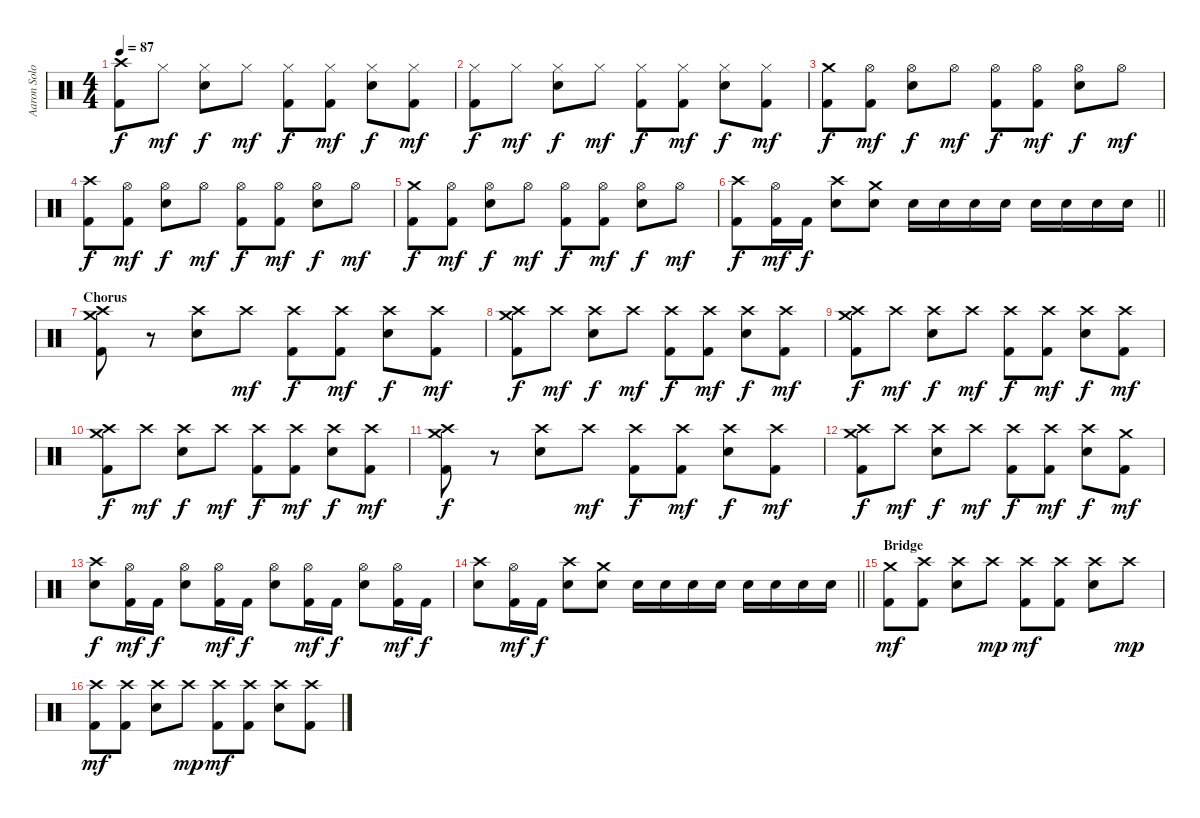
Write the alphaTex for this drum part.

\track ("Aaron Solowoniuk" "Aaron Solo") {instrument percussion}
\staff {score}
\articulation defaults
\ts (4 4)
\tempo 87
\clef neutral
\ks c
("Crash high (hit)" "Kick (hit) 2").8{dy f} "Hi-Hat (closed)".8{dy mf} ("Hi-Hat (closed)" "Snare (hit) 2").8{dy f} "Hi-Hat (closed)".8{dy mf} ("Hi-Hat (closed)" "Kick (hit) 2").8{dy f} ("Hi-Hat (closed)" "Kick (hit) 2").8{dy mf} ("Hi-Hat (closed)" "Snare (hit) 2").8{dy f} ("Hi-Hat (closed)" "Kick (hit) 2").8{dy mf} |
("Hi-Hat (closed)" "Kick (hit) 2").8{dy f} "Hi-Hat (closed)".8{dy mf} ("Hi-Hat (closed)" "Snare (hit) 2").8{dy f} "Hi-Hat (closed)".8{dy mf} ("Hi-Hat (closed)" "Kick (hit) 2").8{dy f} ("Hi-Hat (closed)" "Kick (hit) 2").8{dy mf} ("Hi-Hat (closed)" "Snare (hit) 2").8{dy f} ("Hi-Hat (closed)" "Kick (hit) 2").8{dy mf} |
("Crash medium (hit)" "Kick (hit) 2").8{dy f} ("Hi-Hat (open)" "Kick (hit) 2").8{dy mf} ("Hi-Hat (open)" "Snare (hit) 2").8{dy f} "Hi-Hat (open)".8{dy mf} ("Hi-Hat (open)" "Kick (hit) 2").8{dy f} ("Hi-Hat (open)" "Kick (hit) 2").8{dy mf} ("Hi-Hat (open)" "Snare (hit) 2").8{dy f} "Hi-Hat (open)".8{dy mf} |
("Crash high (hit)" "Kick (hit) 2").8{dy f} ("Hi-Hat (open)" "Kick (hit) 2").8{dy mf} ("Hi-Hat (open)" "Snare (hit) 2").8{dy f} "Hi-Hat (open)".8{dy mf} ("Hi-Hat (open)" "Kick (hit) 2").8{dy f} ("Hi-Hat (open)" "Kick (hit) 2").8{dy mf} ("Hi-Hat (open)" "Snare (hit) 2").8{dy f} "Hi-Hat (open)".8{dy mf} |
("Crash medium (hit)" "Kick (hit) 2").8{dy f} ("Hi-Hat (open)" "Kick (hit) 2").8{dy mf} ("Hi-Hat (open)" "Snare (hit) 2").8{dy f} "Hi-Hat (open)".8{dy mf} ("Hi-Hat (open)" "Kick (hit) 2").8{dy f} ("Hi-Hat (open)" "Kick (hit) 2").8{dy mf} ("Hi-Hat (open)" "Snare (hit) 2").8{dy f} "Hi-Hat (open)".8{dy mf} |
\barLineRight lightlight
("Crash high (hit)" "Kick (hit) 2").8{dy f} ("Hi-Hat (open)" "Kick (hit) 2").16{dy mf} "Kick (hit) 2".16{dy f} ("Crash high (hit)" "Snare (hit) 2").8 ("Crash medium (hit)" "Snare (hit) 2").8 "Snare (hit) 2".16 "Snare (hit) 2".16 "Snare (hit) 2".16 "Snare (hit) 2".16 "Snare (hit) 2".16 "Snare (hit) 2".16 "Snare (hit) 2".16 "Snare (hit) 2".16 |
\section ("" "Chorus")
("Crash high (hit)" "Crash medium (hit)" "Kick (hit) 2").8 r.8 ("Crash high (hit)" "Snare (hit) 2").8 "Crash high (hit)".8{dy mf} ("Crash high (hit)" "Kick (hit) 2").8{dy f} ("Crash high (hit)" "Kick (hit) 2").8{dy mf} ("Crash high (hit)" "Snare (hit) 2").8{dy f} ("Crash high (hit)" "Kick (hit) 2").8{dy mf} |
("Crash high (hit)" "Crash medium (hit)" "Kick (hit) 2").8{dy f} "Crash high (hit)".8{dy mf} ("Crash high (hit)" "Snare (hit) 2").8{dy f} "Crash high (hit)".8{dy mf} ("Crash high (hit)" "Kick (hit) 2").8{dy f} ("Crash high (hit)" "Kick (hit) 2").8{dy mf} ("Crash high (hit)" "Snare (hit) 2").8{dy f} ("Crash high (hit)" "Kick (hit) 2").8{dy mf} |
("Crash high (hit)" "Crash medium (hit)" "Kick (hit) 2").8{dy f} "Crash high (hit)".8{dy mf} ("Crash high (hit)" "Snare (hit) 2").8{dy f} "Crash high (hit)".8{dy mf} ("Crash high (hit)" "Kick (hit) 2").8{dy f} ("Crash high (hit)" "Kick (hit) 2").8{dy mf} ("Crash high (hit)" "Snare (hit) 2").8{dy f} ("Crash high (hit)" "Kick (hit) 2").8{dy mf} |
("Crash high (hit)" "Crash medium (hit)" "Kick (hit) 2").8{dy f} "Crash high (hit)".8{dy mf} ("Crash high (hit)" "Snare (hit) 2").8{dy f} "Crash high (hit)".8{dy mf} ("Crash high (hit)" "Kick (hit) 2").8{dy f} ("Crash high (hit)" "Kick (hit) 2").8{dy mf} ("Crash high (hit)" "Snare (hit) 2").8{dy f} ("Crash high (hit)" "Kick (hit) 2").8{dy mf} |
("Crash high (hit)" "Crash medium (hit)" "Kick (hit) 2").8{dy f} r.8 ("Crash high (hit)" "Snare (hit) 2").8 "Crash high (hit)".8{dy mf} ("Crash high (hit)" "Kick (hit) 2").8{dy f} ("Crash high (hit)" "Kick (hit) 2").8{dy mf} ("Crash high (hit)" "Snare (hit) 2").8{dy f} ("Crash high (hit)" "Kick (hit) 2").8{dy mf} |
("Crash high (hit)" "Crash medium (hit)" "Kick (hit) 2").8{dy f} "Crash high (hit)".8{dy mf} ("Crash high (hit)" "Snare (hit) 2").8{dy f} "Crash high (hit)".8{dy mf} ("Crash high (hit)" "Kick (hit) 2").8{dy f} ("Crash high (hit)" "Kick (hit) 2").8{dy mf} ("Crash high (hit)" "Snare (hit) 2").8{dy f} ("Crash medium (hit)" "Kick (hit) 2").8{dy mf} |
("Crash high (hit)" "Snare (hit) 2").8{dy f} ("Hi-Hat (open)" "Kick (hit) 2").16{dy mf} "Kick (hit) 2".16{dy f} ("Hi-Hat (open)" "Snare (hit) 2").8 ("Hi-Hat (open)" "Kick (hit) 2").16{dy mf} "Kick (hit) 2".16{dy f} ("Hi-Hat (open)" "Snare (hit) 2").8 ("Hi-Hat (open)" "Kick (hit) 2").16{dy mf} "Kick (hit) 2".16{dy f} ("Hi-Hat (open)" "Snare (hit) 2").8 ("Hi-Hat (open)" "Kick (hit) 2").16{dy mf} "Kick (hit) 2".16{dy f} |
\barLineRight lightlight
("Crash high (hit)" "Snare (hit) 2").8 ("Hi-Hat (open)" "Kick (hit) 2").16{dy mf} "Kick (hit) 2".16{dy f} ("Crash high (hit)" "Snare (hit) 2").8 ("Crash medium (hit)" "Snare (hit) 2").8 "Snare (hit) 2".16 "Snare (hit) 2".16 "Snare (hit) 2".16 "Snare (hit) 2".16 "Snare (hit) 2".16 "Snare (hit) 2".16 "Snare (hit) 2".16 "Snare (hit) 2".16 |
\section ("" "Bridge")
("Crash medium (hit)" "Kick (hit) 2").8{dy mf} ("Crash high (hit)" "Kick (hit) 2").8 ("Crash high (hit)" "Snare (hit) 2").8 "Crash high (hit)".8{dy mp} ("Crash high (hit)" "Kick (hit) 2").8{dy mf} ("Crash high (hit)" "Kick (hit) 2").8 ("Crash high (hit)" "Snare (hit) 2").8 "Crash high (hit)".8{dy mp} |
("Crash high (hit)" "Kick (hit) 2").8{dy mf} ("Crash high (hit)" "Kick (hit) 2").8 ("Crash high (hit)" "Snare (hit) 2").8 "Crash high (hit)".8{dy mp} ("Crash high (hit)" "Kick (hit) 2").8{dy mf} ("Crash high (hit)" "Kick (hit) 2").8 ("Crash high (hit)" "Snare (hit) 2").8 ("Crash high (hit)" "Kick (hit) 2").8
